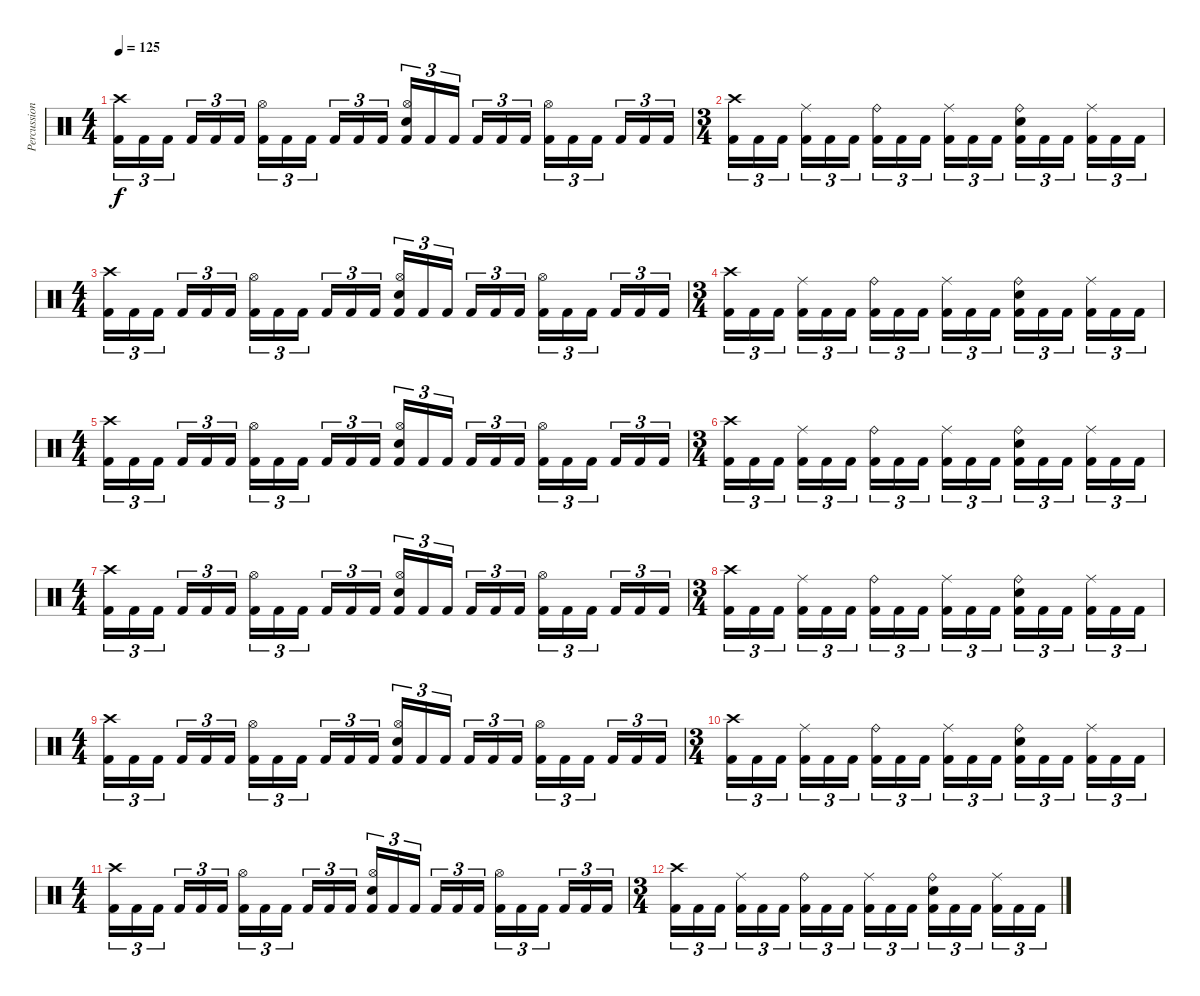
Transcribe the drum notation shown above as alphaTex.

\track ("Percussion" "Percussion") {instrument percussion}
\staff {score}
\articulation defaults
\ts (4 4)
\tempo 125
\clef neutral
\ks c
("Kick (hit) 2" "Crash high (hit)").16{tu (3 2) dy f} "Kick (hit) 2".16{tu (3 2)} "Kick (hit) 2".16{tu (3 2) beam splitsecondary} "Kick (hit) 2".16{tu (3 2)} "Kick (hit) 2".16{tu (3 2)} "Kick (hit) 2".16{tu (3 2)} ("Kick (hit) 2" "Hi-Hat (open)").16{tu (3 2)} "Kick (hit) 2".16{tu (3 2)} "Kick (hit) 2".16{tu (3 2) beam splitsecondary} "Kick (hit) 2".16{tu (3 2)} "Kick (hit) 2".16{tu (3 2)} "Kick (hit) 2".16{tu (3 2)} ("Kick (hit) 2" "Hi-Hat (open)" "Electric Snare (hit)").16{tu (3 2)} "Kick (hit) 2".16{tu (3 2)} "Kick (hit) 2".16{tu (3 2) beam splitsecondary} "Kick (hit) 2".16{tu (3 2)} "Kick (hit) 2".16{tu (3 2)} "Kick (hit) 2".16{tu (3 2)} ("Kick (hit) 2" "Hi-Hat (open)").16{tu (3 2)} "Kick (hit) 2".16{tu (3 2)} "Kick (hit) 2".16{tu (3 2) beam splitsecondary} "Kick (hit) 2".16{tu (3 2)} "Kick (hit) 2".16{tu (3 2)} "Kick (hit) 2".16{tu (3 2)} |
\ts (3 4)
("Kick (hit) 2" "Crash high (hit)").16{tu (3 2)} "Kick (hit) 2".16{tu (3 2)} "Kick (hit) 2".16{tu (3 2) beam splitsecondary} ("Kick (hit) 2" "Ride (middle)").16{tu (3 2)} "Kick (hit) 2".16{tu (3 2)} "Kick (hit) 2".16{tu (3 2)} ("Kick (hit) 2" "Ride (bell)").16{tu (3 2)} "Kick (hit) 2".16{tu (3 2)} "Kick (hit) 2".16{tu (3 2) beam splitsecondary} ("Kick (hit) 2" "Ride (middle)").16{tu (3 2)} "Kick (hit) 2".16{tu (3 2)} "Kick (hit) 2".16{tu (3 2)} ("Kick (hit) 2" "Ride (bell)" "Electric Snare (hit)").16{tu (3 2)} "Kick (hit) 2".16{tu (3 2)} "Kick (hit) 2".16{tu (3 2) beam splitsecondary} ("Kick (hit) 2" "Ride (middle)").16{tu (3 2)} "Kick (hit) 2".16{tu (3 2)} "Kick (hit) 2".16{tu (3 2)} |
\ts (4 4)
("Kick (hit) 2" "Crash high (hit)").16{tu (3 2)} "Kick (hit) 2".16{tu (3 2)} "Kick (hit) 2".16{tu (3 2) beam splitsecondary} "Kick (hit) 2".16{tu (3 2)} "Kick (hit) 2".16{tu (3 2)} "Kick (hit) 2".16{tu (3 2)} ("Kick (hit) 2" "Hi-Hat (open)").16{tu (3 2)} "Kick (hit) 2".16{tu (3 2)} "Kick (hit) 2".16{tu (3 2) beam splitsecondary} "Kick (hit) 2".16{tu (3 2)} "Kick (hit) 2".16{tu (3 2)} "Kick (hit) 2".16{tu (3 2)} ("Kick (hit) 2" "Hi-Hat (open)" "Electric Snare (hit)").16{tu (3 2)} "Kick (hit) 2".16{tu (3 2)} "Kick (hit) 2".16{tu (3 2) beam splitsecondary} "Kick (hit) 2".16{tu (3 2)} "Kick (hit) 2".16{tu (3 2)} "Kick (hit) 2".16{tu (3 2)} ("Kick (hit) 2" "Hi-Hat (open)").16{tu (3 2)} "Kick (hit) 2".16{tu (3 2)} "Kick (hit) 2".16{tu (3 2) beam splitsecondary} "Kick (hit) 2".16{tu (3 2)} "Kick (hit) 2".16{tu (3 2)} "Kick (hit) 2".16{tu (3 2)} |
\ts (3 4)
("Kick (hit) 2" "Crash high (hit)").16{tu (3 2)} "Kick (hit) 2".16{tu (3 2)} "Kick (hit) 2".16{tu (3 2) beam splitsecondary} ("Kick (hit) 2" "Ride (middle)").16{tu (3 2)} "Kick (hit) 2".16{tu (3 2)} "Kick (hit) 2".16{tu (3 2)} ("Kick (hit) 2" "Ride (bell)").16{tu (3 2)} "Kick (hit) 2".16{tu (3 2)} "Kick (hit) 2".16{tu (3 2) beam splitsecondary} ("Kick (hit) 2" "Ride (middle)").16{tu (3 2)} "Kick (hit) 2".16{tu (3 2)} "Kick (hit) 2".16{tu (3 2)} ("Kick (hit) 2" "Ride (bell)" "Electric Snare (hit)").16{tu (3 2)} "Kick (hit) 2".16{tu (3 2)} "Kick (hit) 2".16{tu (3 2) beam splitsecondary} ("Kick (hit) 2" "Ride (middle)").16{tu (3 2)} "Kick (hit) 2".16{tu (3 2)} "Kick (hit) 2".16{tu (3 2)} |
\ts (4 4)
("Kick (hit) 2" "Crash high (hit)").16{tu (3 2)} "Kick (hit) 2".16{tu (3 2)} "Kick (hit) 2".16{tu (3 2) beam splitsecondary} "Kick (hit) 2".16{tu (3 2)} "Kick (hit) 2".16{tu (3 2)} "Kick (hit) 2".16{tu (3 2)} ("Kick (hit) 2" "Hi-Hat (open)").16{tu (3 2)} "Kick (hit) 2".16{tu (3 2)} "Kick (hit) 2".16{tu (3 2) beam splitsecondary} "Kick (hit) 2".16{tu (3 2)} "Kick (hit) 2".16{tu (3 2)} "Kick (hit) 2".16{tu (3 2)} ("Kick (hit) 2" "Hi-Hat (open)" "Electric Snare (hit)").16{tu (3 2)} "Kick (hit) 2".16{tu (3 2)} "Kick (hit) 2".16{tu (3 2) beam splitsecondary} "Kick (hit) 2".16{tu (3 2)} "Kick (hit) 2".16{tu (3 2)} "Kick (hit) 2".16{tu (3 2)} ("Kick (hit) 2" "Hi-Hat (open)").16{tu (3 2)} "Kick (hit) 2".16{tu (3 2)} "Kick (hit) 2".16{tu (3 2) beam splitsecondary} "Kick (hit) 2".16{tu (3 2)} "Kick (hit) 2".16{tu (3 2)} "Kick (hit) 2".16{tu (3 2)} |
\ts (3 4)
("Kick (hit) 2" "Crash high (hit)").16{tu (3 2)} "Kick (hit) 2".16{tu (3 2)} "Kick (hit) 2".16{tu (3 2) beam splitsecondary} ("Kick (hit) 2" "Ride (middle)").16{tu (3 2)} "Kick (hit) 2".16{tu (3 2)} "Kick (hit) 2".16{tu (3 2)} ("Kick (hit) 2" "Ride (bell)").16{tu (3 2)} "Kick (hit) 2".16{tu (3 2)} "Kick (hit) 2".16{tu (3 2) beam splitsecondary} ("Kick (hit) 2" "Ride (middle)").16{tu (3 2)} "Kick (hit) 2".16{tu (3 2)} "Kick (hit) 2".16{tu (3 2)} ("Kick (hit) 2" "Ride (bell)" "Electric Snare (hit)").16{tu (3 2)} "Kick (hit) 2".16{tu (3 2)} "Kick (hit) 2".16{tu (3 2) beam splitsecondary} ("Kick (hit) 2" "Ride (middle)").16{tu (3 2)} "Kick (hit) 2".16{tu (3 2)} "Kick (hit) 2".16{tu (3 2)} |
\ts (4 4)
("Kick (hit) 2" "Crash high (hit)").16{tu (3 2)} "Kick (hit) 2".16{tu (3 2)} "Kick (hit) 2".16{tu (3 2) beam splitsecondary} "Kick (hit) 2".16{tu (3 2)} "Kick (hit) 2".16{tu (3 2)} "Kick (hit) 2".16{tu (3 2)} ("Kick (hit) 2" "Hi-Hat (open)").16{tu (3 2)} "Kick (hit) 2".16{tu (3 2)} "Kick (hit) 2".16{tu (3 2) beam splitsecondary} "Kick (hit) 2".16{tu (3 2)} "Kick (hit) 2".16{tu (3 2)} "Kick (hit) 2".16{tu (3 2)} ("Kick (hit) 2" "Hi-Hat (open)" "Electric Snare (hit)").16{tu (3 2)} "Kick (hit) 2".16{tu (3 2)} "Kick (hit) 2".16{tu (3 2) beam splitsecondary} "Kick (hit) 2".16{tu (3 2)} "Kick (hit) 2".16{tu (3 2)} "Kick (hit) 2".16{tu (3 2)} ("Kick (hit) 2" "Hi-Hat (open)").16{tu (3 2)} "Kick (hit) 2".16{tu (3 2)} "Kick (hit) 2".16{tu (3 2) beam splitsecondary} "Kick (hit) 2".16{tu (3 2)} "Kick (hit) 2".16{tu (3 2)} "Kick (hit) 2".16{tu (3 2)} |
\ts (3 4)
("Kick (hit) 2" "Crash high (hit)").16{tu (3 2)} "Kick (hit) 2".16{tu (3 2)} "Kick (hit) 2".16{tu (3 2) beam splitsecondary} ("Kick (hit) 2" "Ride (middle)").16{tu (3 2)} "Kick (hit) 2".16{tu (3 2)} "Kick (hit) 2".16{tu (3 2)} ("Kick (hit) 2" "Ride (bell)").16{tu (3 2)} "Kick (hit) 2".16{tu (3 2)} "Kick (hit) 2".16{tu (3 2) beam splitsecondary} ("Kick (hit) 2" "Ride (middle)").16{tu (3 2)} "Kick (hit) 2".16{tu (3 2)} "Kick (hit) 2".16{tu (3 2)} ("Kick (hit) 2" "Ride (bell)" "Electric Snare (hit)").16{tu (3 2)} "Kick (hit) 2".16{tu (3 2)} "Kick (hit) 2".16{tu (3 2) beam splitsecondary} ("Kick (hit) 2" "Ride (middle)").16{tu (3 2)} "Kick (hit) 2".16{tu (3 2)} "Kick (hit) 2".16{tu (3 2)} |
\ts (4 4)
("Kick (hit) 2" "Crash high (hit)").16{tu (3 2)} "Kick (hit) 2".16{tu (3 2)} "Kick (hit) 2".16{tu (3 2) beam splitsecondary} "Kick (hit) 2".16{tu (3 2)} "Kick (hit) 2".16{tu (3 2)} "Kick (hit) 2".16{tu (3 2)} ("Kick (hit) 2" "Hi-Hat (open)").16{tu (3 2)} "Kick (hit) 2".16{tu (3 2)} "Kick (hit) 2".16{tu (3 2) beam splitsecondary} "Kick (hit) 2".16{tu (3 2)} "Kick (hit) 2".16{tu (3 2)} "Kick (hit) 2".16{tu (3 2)} ("Kick (hit) 2" "Hi-Hat (open)" "Electric Snare (hit)").16{tu (3 2)} "Kick (hit) 2".16{tu (3 2)} "Kick (hit) 2".16{tu (3 2) beam splitsecondary} "Kick (hit) 2".16{tu (3 2)} "Kick (hit) 2".16{tu (3 2)} "Kick (hit) 2".16{tu (3 2)} ("Kick (hit) 2" "Hi-Hat (open)").16{tu (3 2)} "Kick (hit) 2".16{tu (3 2)} "Kick (hit) 2".16{tu (3 2) beam splitsecondary} "Kick (hit) 2".16{tu (3 2)} "Kick (hit) 2".16{tu (3 2)} "Kick (hit) 2".16{tu (3 2)} |
\ts (3 4)
("Kick (hit) 2" "Crash high (hit)").16{tu (3 2)} "Kick (hit) 2".16{tu (3 2)} "Kick (hit) 2".16{tu (3 2) beam splitsecondary} ("Kick (hit) 2" "Ride (middle)").16{tu (3 2)} "Kick (hit) 2".16{tu (3 2)} "Kick (hit) 2".16{tu (3 2)} ("Kick (hit) 2" "Ride (bell)").16{tu (3 2)} "Kick (hit) 2".16{tu (3 2)} "Kick (hit) 2".16{tu (3 2) beam splitsecondary} ("Kick (hit) 2" "Ride (middle)").16{tu (3 2)} "Kick (hit) 2".16{tu (3 2)} "Kick (hit) 2".16{tu (3 2)} ("Kick (hit) 2" "Ride (bell)" "Electric Snare (hit)").16{tu (3 2)} "Kick (hit) 2".16{tu (3 2)} "Kick (hit) 2".16{tu (3 2) beam splitsecondary} ("Kick (hit) 2" "Ride (middle)").16{tu (3 2)} "Kick (hit) 2".16{tu (3 2)} "Kick (hit) 2".16{tu (3 2)} |
\ts (4 4)
("Kick (hit) 2" "Crash high (hit)").16{tu (3 2)} "Kick (hit) 2".16{tu (3 2)} "Kick (hit) 2".16{tu (3 2) beam splitsecondary} "Kick (hit) 2".16{tu (3 2)} "Kick (hit) 2".16{tu (3 2)} "Kick (hit) 2".16{tu (3 2)} ("Kick (hit) 2" "Hi-Hat (open)").16{tu (3 2)} "Kick (hit) 2".16{tu (3 2)} "Kick (hit) 2".16{tu (3 2) beam splitsecondary} "Kick (hit) 2".16{tu (3 2)} "Kick (hit) 2".16{tu (3 2)} "Kick (hit) 2".16{tu (3 2)} ("Kick (hit) 2" "Hi-Hat (open)" "Electric Snare (hit)").16{tu (3 2)} "Kick (hit) 2".16{tu (3 2)} "Kick (hit) 2".16{tu (3 2) beam splitsecondary} "Kick (hit) 2".16{tu (3 2)} "Kick (hit) 2".16{tu (3 2)} "Kick (hit) 2".16{tu (3 2)} ("Kick (hit) 2" "Hi-Hat (open)").16{tu (3 2)} "Kick (hit) 2".16{tu (3 2)} "Kick (hit) 2".16{tu (3 2) beam splitsecondary} "Kick (hit) 2".16{tu (3 2)} "Kick (hit) 2".16{tu (3 2)} "Kick (hit) 2".16{tu (3 2)} |
\ts (3 4)
("Kick (hit) 2" "Crash high (hit)").16{tu (3 2)} "Kick (hit) 2".16{tu (3 2)} "Kick (hit) 2".16{tu (3 2) beam splitsecondary} ("Kick (hit) 2" "Ride (middle)").16{tu (3 2)} "Kick (hit) 2".16{tu (3 2)} "Kick (hit) 2".16{tu (3 2)} ("Kick (hit) 2" "Ride (bell)").16{tu (3 2)} "Kick (hit) 2".16{tu (3 2)} "Kick (hit) 2".16{tu (3 2) beam splitsecondary} ("Kick (hit) 2" "Ride (middle)").16{tu (3 2)} "Kick (hit) 2".16{tu (3 2)} "Kick (hit) 2".16{tu (3 2)} ("Kick (hit) 2" "Ride (bell)" "Electric Snare (hit)").16{tu (3 2)} "Kick (hit) 2".16{tu (3 2)} "Kick (hit) 2".16{tu (3 2) beam splitsecondary} ("Kick (hit) 2" "Ride (middle)").16{tu (3 2)} "Kick (hit) 2".16{tu (3 2)} "Kick (hit) 2".16{tu (3 2)}
